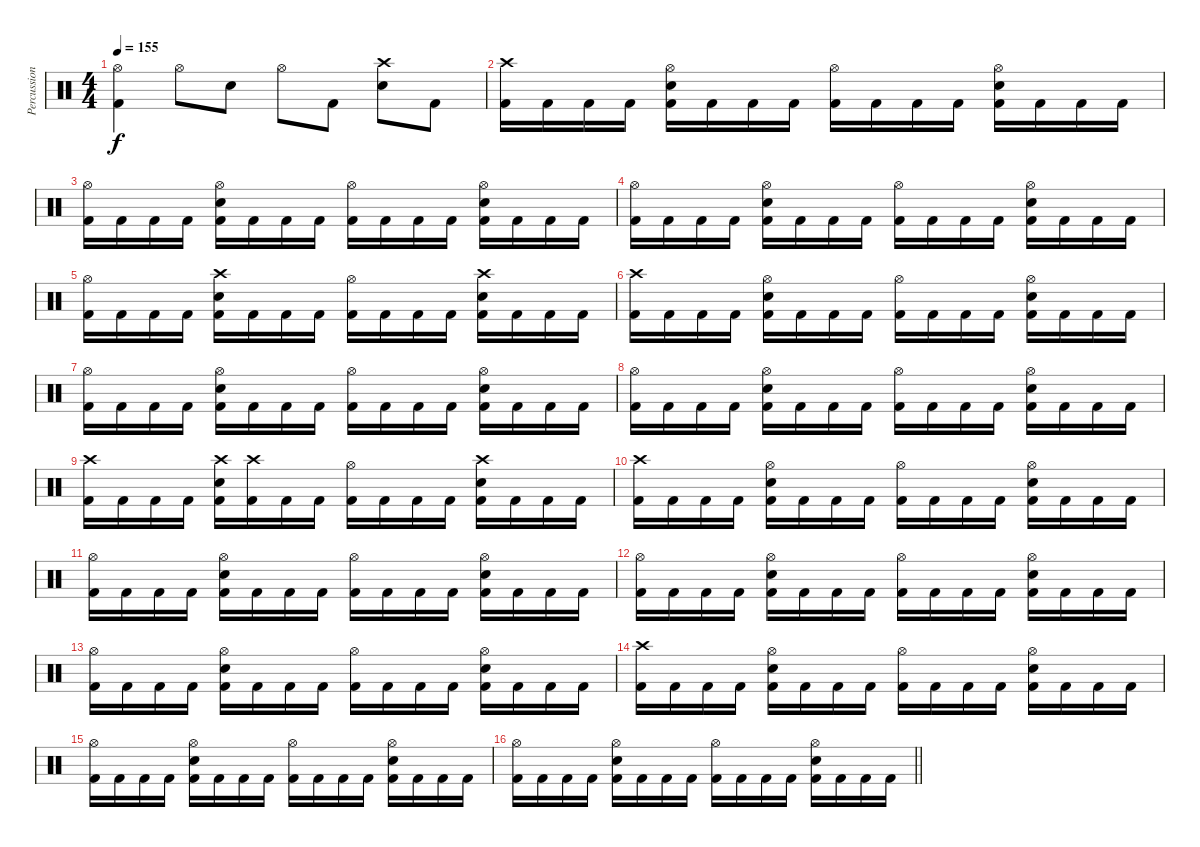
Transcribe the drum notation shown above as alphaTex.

\track ("Percussion" "Percussion") {instrument percussion}
\staff {score}
\articulation defaults
\ts (4 4)
\tempo 155
\clef neutral
\ks c
("Hi-Hat (open)" "Kick (hit) 2").4{dy f} "Hi-Hat (open)".8 "Electric Snare (hit)".8 "Hi-Hat (open)".8 "Kick (hit) 2".8 ("Crash high (hit)" "Electric Snare (hit)").8 "Kick (hit) 2".8 |
("Crash high (hit)" "Kick (hit) 2").16 "Kick (hit) 2".16 "Kick (hit) 2".16 "Kick (hit) 2".16 ("Hi-Hat (open)" "Electric Snare (hit)" "Kick (hit) 2").16 "Kick (hit) 2".16 "Kick (hit) 2".16 "Kick (hit) 2".16 ("Hi-Hat (open)" "Kick (hit) 2").16 "Kick (hit) 2".16 "Kick (hit) 2".16 "Kick (hit) 2".16 ("Hi-Hat (open)" "Electric Snare (hit)" "Kick (hit) 2").16 "Kick (hit) 2".16 "Kick (hit) 2".16 "Kick (hit) 2".16 |
("Hi-Hat (open)" "Kick (hit) 2").16 "Kick (hit) 2".16 "Kick (hit) 2".16 "Kick (hit) 2".16 ("Hi-Hat (open)" "Electric Snare (hit)" "Kick (hit) 2").16 "Kick (hit) 2".16 "Kick (hit) 2".16 "Kick (hit) 2".16 ("Hi-Hat (open)" "Kick (hit) 2").16 "Kick (hit) 2".16 "Kick (hit) 2".16 "Kick (hit) 2".16 ("Hi-Hat (open)" "Electric Snare (hit)" "Kick (hit) 2").16 "Kick (hit) 2".16 "Kick (hit) 2".16 "Kick (hit) 2".16 |
("Hi-Hat (open)" "Kick (hit) 2").16 "Kick (hit) 2".16 "Kick (hit) 2".16 "Kick (hit) 2".16 ("Hi-Hat (open)" "Electric Snare (hit)" "Kick (hit) 2").16 "Kick (hit) 2".16 "Kick (hit) 2".16 "Kick (hit) 2".16 ("Hi-Hat (open)" "Kick (hit) 2").16 "Kick (hit) 2".16 "Kick (hit) 2".16 "Kick (hit) 2".16 ("Hi-Hat (open)" "Electric Snare (hit)" "Kick (hit) 2").16 "Kick (hit) 2".16 "Kick (hit) 2".16 "Kick (hit) 2".16 |
("Hi-Hat (open)" "Kick (hit) 2").16 "Kick (hit) 2".16 "Kick (hit) 2".16 "Kick (hit) 2".16 ("Crash high (hit)" "Electric Snare (hit)" "Kick (hit) 2").16 "Kick (hit) 2".16 "Kick (hit) 2".16 "Kick (hit) 2".16 ("Hi-Hat (open)" "Kick (hit) 2").16 "Kick (hit) 2".16 "Kick (hit) 2".16 "Kick (hit) 2".16 ("Crash high (hit)" "Electric Snare (hit)" "Kick (hit) 2").16 "Kick (hit) 2".16 "Kick (hit) 2".16 "Kick (hit) 2".16 |
("Crash high (hit)" "Kick (hit) 2").16 "Kick (hit) 2".16 "Kick (hit) 2".16 "Kick (hit) 2".16 ("Hi-Hat (open)" "Electric Snare (hit)" "Kick (hit) 2").16 "Kick (hit) 2".16 "Kick (hit) 2".16 "Kick (hit) 2".16 ("Hi-Hat (open)" "Kick (hit) 2").16 "Kick (hit) 2".16 "Kick (hit) 2".16 "Kick (hit) 2".16 ("Hi-Hat (open)" "Electric Snare (hit)" "Kick (hit) 2").16 "Kick (hit) 2".16 "Kick (hit) 2".16 "Kick (hit) 2".16 |
("Hi-Hat (open)" "Kick (hit) 2").16 "Kick (hit) 2".16 "Kick (hit) 2".16 "Kick (hit) 2".16 ("Hi-Hat (open)" "Electric Snare (hit)" "Kick (hit) 2").16 "Kick (hit) 2".16 "Kick (hit) 2".16 "Kick (hit) 2".16 ("Hi-Hat (open)" "Kick (hit) 2").16 "Kick (hit) 2".16 "Kick (hit) 2".16 "Kick (hit) 2".16 ("Hi-Hat (open)" "Electric Snare (hit)" "Kick (hit) 2").16 "Kick (hit) 2".16 "Kick (hit) 2".16 "Kick (hit) 2".16 |
("Hi-Hat (open)" "Kick (hit) 2").16 "Kick (hit) 2".16 "Kick (hit) 2".16 "Kick (hit) 2".16 ("Hi-Hat (open)" "Electric Snare (hit)" "Kick (hit) 2").16 "Kick (hit) 2".16 "Kick (hit) 2".16 "Kick (hit) 2".16 ("Hi-Hat (open)" "Kick (hit) 2").16 "Kick (hit) 2".16 "Kick (hit) 2".16 "Kick (hit) 2".16 ("Hi-Hat (open)" "Electric Snare (hit)" "Kick (hit) 2").16 "Kick (hit) 2".16 "Kick (hit) 2".16 "Kick (hit) 2".16 |
("Crash high (hit)" "Kick (hit) 2").16 "Kick (hit) 2".16 "Kick (hit) 2".16 "Kick (hit) 2".16 ("Crash high (hit)" "Electric Snare (hit)" "Kick (hit) 2").16 ("Crash high (hit)" "Kick (hit) 2").16 "Kick (hit) 2".16 "Kick (hit) 2".16 ("Hi-Hat (open)" "Kick (hit) 2").16 "Kick (hit) 2".16 "Kick (hit) 2".16 "Kick (hit) 2".16 ("Crash high (hit)" "Electric Snare (hit)" "Kick (hit) 2").16 "Kick (hit) 2".16 "Kick (hit) 2".16 "Kick (hit) 2".16 |
("Crash high (hit)" "Kick (hit) 2").16 "Kick (hit) 2".16 "Kick (hit) 2".16 "Kick (hit) 2".16 ("Hi-Hat (open)" "Electric Snare (hit)" "Kick (hit) 2").16 "Kick (hit) 2".16 "Kick (hit) 2".16 "Kick (hit) 2".16 ("Hi-Hat (open)" "Kick (hit) 2").16 "Kick (hit) 2".16 "Kick (hit) 2".16 "Kick (hit) 2".16 ("Hi-Hat (open)" "Electric Snare (hit)" "Kick (hit) 2").16 "Kick (hit) 2".16 "Kick (hit) 2".16 "Kick (hit) 2".16 |
("Hi-Hat (open)" "Kick (hit) 2").16 "Kick (hit) 2".16 "Kick (hit) 2".16 "Kick (hit) 2".16 ("Hi-Hat (open)" "Electric Snare (hit)" "Kick (hit) 2").16 "Kick (hit) 2".16 "Kick (hit) 2".16 "Kick (hit) 2".16 ("Hi-Hat (open)" "Kick (hit) 2").16 "Kick (hit) 2".16 "Kick (hit) 2".16 "Kick (hit) 2".16 ("Hi-Hat (open)" "Electric Snare (hit)" "Kick (hit) 2").16 "Kick (hit) 2".16 "Kick (hit) 2".16 "Kick (hit) 2".16 |
("Hi-Hat (open)" "Kick (hit) 2").16 "Kick (hit) 2".16 "Kick (hit) 2".16 "Kick (hit) 2".16 ("Hi-Hat (open)" "Electric Snare (hit)" "Kick (hit) 2").16 "Kick (hit) 2".16 "Kick (hit) 2".16 "Kick (hit) 2".16 ("Hi-Hat (open)" "Kick (hit) 2").16 "Kick (hit) 2".16 "Kick (hit) 2".16 "Kick (hit) 2".16 ("Hi-Hat (open)" "Electric Snare (hit)" "Kick (hit) 2").16 "Kick (hit) 2".16 "Kick (hit) 2".16 "Kick (hit) 2".16 |
("Hi-Hat (open)" "Kick (hit) 2").16 "Kick (hit) 2".16 "Kick (hit) 2".16 "Kick (hit) 2".16 ("Hi-Hat (open)" "Electric Snare (hit)" "Kick (hit) 2").16 "Kick (hit) 2".16 "Kick (hit) 2".16 "Kick (hit) 2".16 ("Hi-Hat (open)" "Kick (hit) 2").16 "Kick (hit) 2".16 "Kick (hit) 2".16 "Kick (hit) 2".16 ("Hi-Hat (open)" "Electric Snare (hit)" "Kick (hit) 2").16 "Kick (hit) 2".16 "Kick (hit) 2".16 "Kick (hit) 2".16 |
("Crash high (hit)" "Kick (hit) 2").16 "Kick (hit) 2".16 "Kick (hit) 2".16 "Kick (hit) 2".16 ("Hi-Hat (open)" "Electric Snare (hit)" "Kick (hit) 2").16 "Kick (hit) 2".16 "Kick (hit) 2".16 "Kick (hit) 2".16 ("Hi-Hat (open)" "Kick (hit) 2").16 "Kick (hit) 2".16 "Kick (hit) 2".16 "Kick (hit) 2".16 ("Hi-Hat (open)" "Electric Snare (hit)" "Kick (hit) 2").16 "Kick (hit) 2".16 "Kick (hit) 2".16 "Kick (hit) 2".16 |
("Hi-Hat (open)" "Kick (hit) 2").16 "Kick (hit) 2".16 "Kick (hit) 2".16 "Kick (hit) 2".16 ("Hi-Hat (open)" "Electric Snare (hit)" "Kick (hit) 2").16 "Kick (hit) 2".16 "Kick (hit) 2".16 "Kick (hit) 2".16 ("Hi-Hat (open)" "Kick (hit) 2").16 "Kick (hit) 2".16 "Kick (hit) 2".16 "Kick (hit) 2".16 ("Hi-Hat (open)" "Electric Snare (hit)" "Kick (hit) 2").16 "Kick (hit) 2".16 "Kick (hit) 2".16 "Kick (hit) 2".16 |
\barLineRight lightlight
("Hi-Hat (open)" "Kick (hit) 2").16 "Kick (hit) 2".16 "Kick (hit) 2".16 "Kick (hit) 2".16 ("Hi-Hat (open)" "Electric Snare (hit)" "Kick (hit) 2").16 "Kick (hit) 2".16 "Kick (hit) 2".16 "Kick (hit) 2".16 ("Hi-Hat (open)" "Kick (hit) 2").16 "Kick (hit) 2".16 "Kick (hit) 2".16 "Kick (hit) 2".16 ("Hi-Hat (open)" "Electric Snare (hit)" "Kick (hit) 2").16 "Kick (hit) 2".16 "Kick (hit) 2".16 "Kick (hit) 2".16
